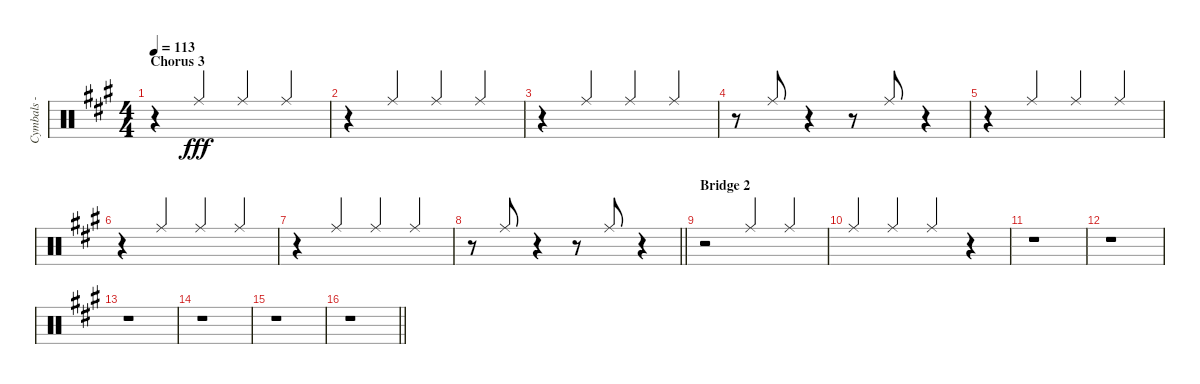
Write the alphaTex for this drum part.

\track ("Cymbals - ride" "Cymbals - ") {instrument percussion}
\staff {score}
\articulation defaults
\ts (4 4)
\section ("" "Chorus 3")
\tempo 113
\clef neutral
\ks f#minor
r.4{dy fff} "Ride (middle)".4{beam Up} "Ride (middle)".4{beam Up} "Ride (middle)".4{beam Up} |
r.4 "Ride (middle)".4{beam Up} "Ride (middle)".4{beam Up} "Ride (middle)".4{beam Up} |
r.4 "Ride (middle)".4{beam Up} "Ride (middle)".4{beam Up} "Ride (middle)".4{beam Up} |
r.8 "Ride (middle)".8{beam Up} r.4 r.8 "Ride (middle)".8{beam Up} r.4 |
r.4 "Ride (middle)".4{beam Up} "Ride (middle)".4{beam Up} "Ride (middle)".4{beam Up} |
r.4 "Ride (middle)".4{beam Up} "Ride (middle)".4{beam Up} "Ride (middle)".4{beam Up} |
r.4 "Ride (middle)".4{beam Up} "Ride (middle)".4{beam Up} "Ride (middle)".4{beam Up} |
\barLineRight lightlight
r.8 "Ride (middle)".8{beam Up} r.4 r.8 "Ride (middle)".8{beam Up} r.4 |
\section ("" "Bridge 2")
r.2 "Ride (middle)".4{beam Up} "Ride (middle)".4{beam Up} |
"Ride (middle)".4{beam Up} "Ride (middle)".4{beam Up} "Ride (middle)".4{beam Up} r.4 |
r.1 |
r.1 |
r.1 |
r.1 |
r.1 |
\barLineRight lightlight
r.1
